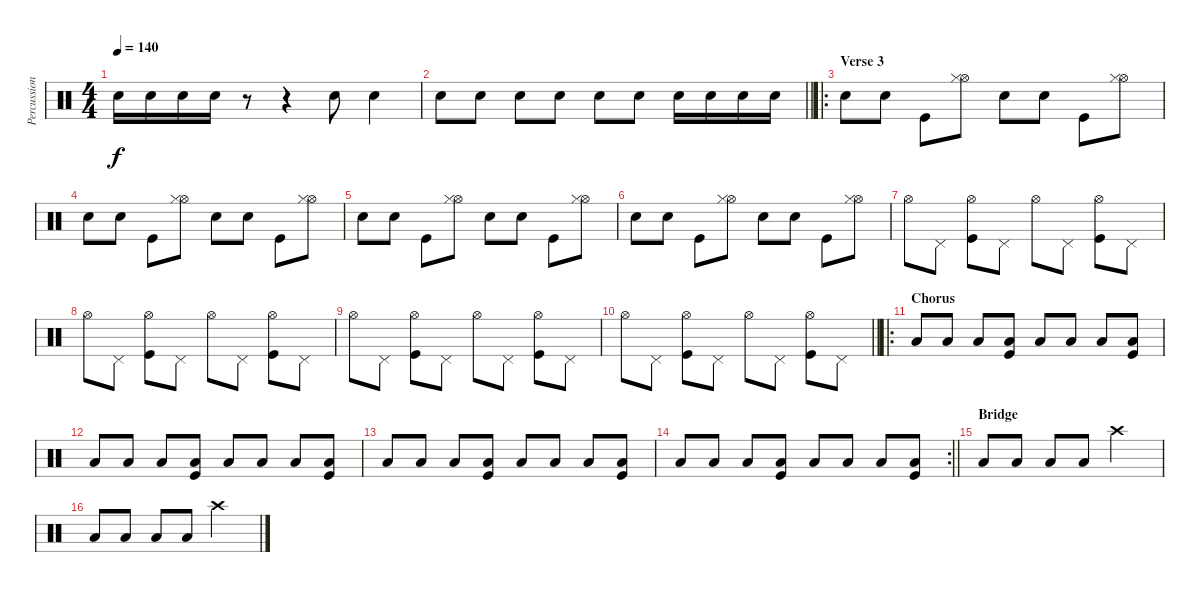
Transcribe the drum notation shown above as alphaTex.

\track ("Percussion" "Percussion") {instrument percussion}
\staff {score}
\articulation defaults
\ts (4 4)
\tempo 140
\clef neutral
\ks c "Snare (hit) 2".16{dy f} "Snare (hit) 2".16 "Snare (hit) 2".16 "Snare (hit) 2".16
r.8 r.4 "Snare (hit) 2".8 "Snare (hit) 2".4 |
\barLineRight lightlight "Snare (hit) 2".8 "Snare (hit) 2".8 "Snare (hit) 2".8 "Snare (hit) 2".8 "Snare (hit) 2".8 "Snare (hit) 2".8 "Snare (hit) 2".16 "Snare (hit) 2".16 "Snare (hit) 2".16 "Snare (hit) 2".16
|
\ro
\section ("" "Verse 3")
"Snare (hit) 2".8 "Snare (hit) 2".8 "Kick (hit)".8 ("Hi-Hat (open)" "Hi-Hat (closed)").8 "Snare (hit) 2".8 "Snare (hit) 2".8 "Kick (hit)".8 ("Hi-Hat (open)" "Hi-Hat (closed)").8 |
"Snare (hit) 2".8 "Snare (hit) 2".8 "Kick (hit)".8 ("Hi-Hat (open)" "Hi-Hat (closed)").8 "Snare (hit) 2".8 "Snare (hit) 2".8 "Kick (hit)".8 ("Hi-Hat (open)" "Hi-Hat (closed)").8 |
"Snare (hit) 2".8 "Snare (hit) 2".8 "Kick (hit)".8 ("Hi-Hat (open)" "Hi-Hat (closed)").8 "Snare (hit) 2".8 "Snare (hit) 2".8 "Kick (hit)".8 ("Hi-Hat (open)" "Hi-Hat (closed)").8 |
"Snare (hit) 2".8 "Snare (hit) 2".8 "Kick (hit)".8 ("Hi-Hat (open)" "Hi-Hat (closed)").8 "Snare (hit) 2".8 "Snare (hit) 2".8 "Kick (hit)".8 ("Hi-Hat (open)" "Hi-Hat (closed)").8 |
"Hi-Hat (open)".8 "Pedal Hi-Hat (hit)".8 ("Hi-Hat (open)" "Kick (hit)").8 "Pedal Hi-Hat (hit)".8 "Hi-Hat (open)".8 "Pedal Hi-Hat (hit)".8 ("Hi-Hat (open)" "Kick (hit)").8 "Pedal Hi-Hat (hit)".8 |
"Hi-Hat (open)".8 "Pedal Hi-Hat (hit)".8 ("Hi-Hat (open)" "Kick (hit)").8 "Pedal Hi-Hat (hit)".8 "Hi-Hat (open)".8 "Pedal Hi-Hat (hit)".8 ("Hi-Hat (open)" "Kick (hit)").8 "Pedal Hi-Hat (hit)".8 |
"Hi-Hat (open)".8 "Pedal Hi-Hat (hit)".8 ("Hi-Hat (open)" "Kick (hit)").8 "Pedal Hi-Hat (hit)".8 "Hi-Hat (open)".8 "Pedal Hi-Hat (hit)".8 ("Hi-Hat (open)" "Kick (hit)").8 "Pedal Hi-Hat (hit)".8 |
\barLineRight lightlight "Hi-Hat (open)".8 "Pedal Hi-Hat (hit)".8
("Hi-Hat (open)" "Kick (hit)").8 "Pedal Hi-Hat (hit)".8 "Hi-Hat (open)".8 "Pedal Hi-Hat (hit)".8 ("Hi-Hat (open)" "Kick (hit)").8 "Pedal Hi-Hat (hit)".8 |
\ro
\section ("" "Chorus")
"Low Tom (hit)".8 "Low Tom (hit)".8 "Low Tom (hit)".8 ("Low Tom (hit)" "Kick (hit)").8 "Low Tom (hit)".8 "Low Tom (hit)".8 "Low Tom (hit)".8 ("Low Tom (hit)" "Kick (hit)").8 |
"Low Tom (hit)".8 "Low Tom (hit)".8 "Low Tom (hit)".8 ("Low Tom (hit)" "Kick (hit)").8 "Low Tom (hit)".8 "Low Tom (hit)".8 "Low Tom (hit)".8 ("Low Tom (hit)" "Kick (hit)").8 |
"Low Tom (hit)".8 "Low Tom (hit)".8 "Low Tom (hit)".8 ("Low Tom (hit)" "Kick (hit)").8 "Low Tom (hit)".8 "Low Tom (hit)".8 "Low Tom (hit)".8 ("Low Tom (hit)" "Kick (hit)").8 |
\rc 2
\barLineRight lightlight "Low Tom (hit)".8 "Low Tom (hit)".8 "Low Tom (hit)".8
("Low Tom (hit)" "Kick (hit)").8 "Low Tom (hit)".8 "Low Tom (hit)".8 "Low Tom (hit)".8 ("Low Tom (hit)" "Kick (hit)").8 |
\section ("" "Bridge")
"Low Tom (hit)".8 "Low Tom (hit)".8 "Low Tom (hit)".8 "Low Tom (hit)".8 "Crash high (hit)".2 |
"Low Tom (hit)".8 "Low Tom (hit)".8 "Low Tom (hit)".8 "Low Tom (hit)".8 "Crash high (hit)".2
